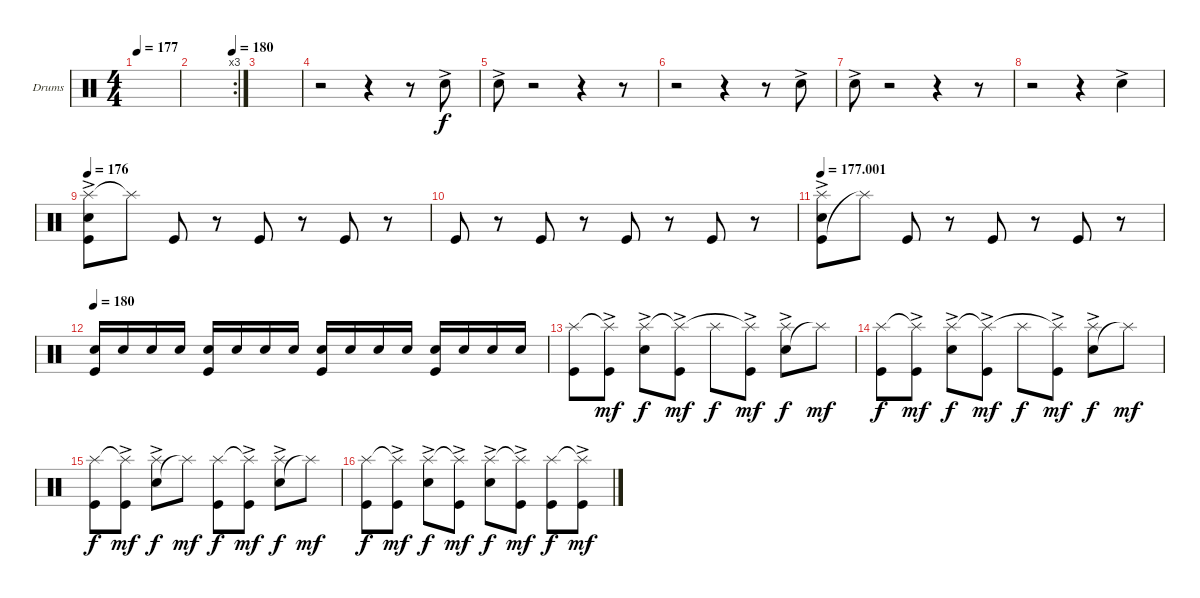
\defaultSystemsLayout 4
\bracketExtendMode groupsimilarinstruments
\firstSystemTrackNameOrientation horizontal
\otherSystemsTrackNameOrientation horizontal
\track ("Drumkit" "Drums") {instrument percussion}
\staff {score}
\articulation defaults
\ts (4 4)
\tempo 177
\clef neutral
\scale
0.459459
\ks c
|
\rc 3
\tempo (180 1)
\scale
0.283784 |
\scale
0.256757 |
\scale
0.333333 r.2 r.4 r.8 "Snare (hit) 2"{ac}.8 |
\scale
0.333333 "Snare (hit) 2"{ac}.8 r.2 r.4 r.8 |
\scale
0.333333 r.2 r.4 r.8 "Snare (hit) 2"{ac}.8 |
\scale
0.333333 "Snare (hit) 2"{ac}.8 r.2 r.4 r.8 |
\scale
0.333333 r.2 r.4 "Snare (hit) 2"{ac}.4 |
\tempo 176
\scale
0.333333 ("Splash (hit)"{ac} "Snare (hit) 2"{ac} "Kick (hit)"{ac}).8 "Splash (hit)"{t}.8 "Kick (hit)".8 r.8 "Kick (hit)".8 r.8 "Kick (hit)".8 r.8 |
"Kick (hit)".8 r.8 "Kick (hit)".8 r.8 "Kick (hit)".8 r.8 "Kick (hit)".8 r.8 |
\tempo
177.001 ("Kick (hit)"{ac} "Splash (hit)"{ac} "Snare (hit) 2"{ac}).8 "Splash (hit)"{t}.8 "Kick (hit)".8 r.8 "Kick (hit)".8 r.8 "Kick (hit)".8 r.8 |
\tempo 180
("Snare (hit) 2" "Kick (hit)").16{dy f} "Snare (hit) 2".16 "Snare (hit) 2".16 "Snare (hit) 2".16 ("Snare (hit) 2" "Kick (hit)").16 "Snare (hit) 2".16 "Snare (hit) 2".16 "Snare (hit) 2".16 ("Snare (hit) 2" "Kick (hit)").16 "Snare (hit) 2".16 "Snare (hit) 2".16 "Snare (hit) 2".16 ("Snare (hit) 2" "Kick (hit)").16 "Snare (hit) 2".16 "Snare (hit) 2".16 "Snare (hit) 2".16 |
("Kick (hit)" "Splash (hit)").8 ("Kick (hit)"{ac} "Splash (hit)"{t}).8{dy mf} ("Snare (hit) 2"{ac} "Splash (hit)").8{dy f} ("Kick (hit)"{ac} "Splash (hit)"{t}).8{dy mf} "Splash (hit)".8{dy f} ("Kick (hit)"{ac} "Splash (hit)"{t}).8{dy mf} ("Snare (hit) 2"{ac} "Splash (hit)").8{dy f} "Splash (hit)"{t}.8{dy mf} |
("Kick (hit)" "Splash (hit)").8{dy f} ("Kick (hit)"{ac} "Splash (hit)"{t}).8{dy mf} ("Snare (hit) 2"{ac} "Splash (hit)").8{dy f} ("Kick (hit)"{ac} "Splash (hit)"{t}).8{dy mf} "Splash (hit)".8{dy f} ("Kick (hit)"{ac} "Splash (hit)"{t}).8{dy mf} ("Snare (hit) 2"{ac} "Splash (hit)").8{dy f} "Splash (hit)"{t}.8{dy mf} |
("Kick (hit)" "Splash (hit)").8{dy f} ("Kick (hit)"{ac} "Splash (hit)"{t}).8{dy mf} ("Snare (hit) 2"{ac} "Splash (hit)").8{dy f} "Splash (hit)"{t}.8{dy mf} ("Kick (hit)" "Splash (hit)").8{dy f} ("Kick (hit)"{ac} "Splash (hit)"{t}).8{dy mf} ("Snare (hit) 2"{ac} "Splash (hit)").8{dy f} "Splash (hit)"{t}.8{dy mf} |
\tempo (180 0.99375 hide)
("Kick (hit)" "Splash (hit)").8{dy f} ("Kick (hit)"{ac} "Splash (hit)"{t}).8{dy mf} ("Snare (hit) 2"{ac} "Splash (hit)").8{dy f} ("Kick (hit)"{ac} "Splash (hit)"{t}).8{dy mf} ("Snare (hit) 2"{ac} "Splash (hit)").8{dy f} ("Kick (hit)"{ac} "Splash (hit)"{t}).8{dy mf} ("Kick (hit)" "Splash (hit)").8{dy f} ("Kick (hit)"{ac} "Splash (hit)"{t}).8{dy mf}
